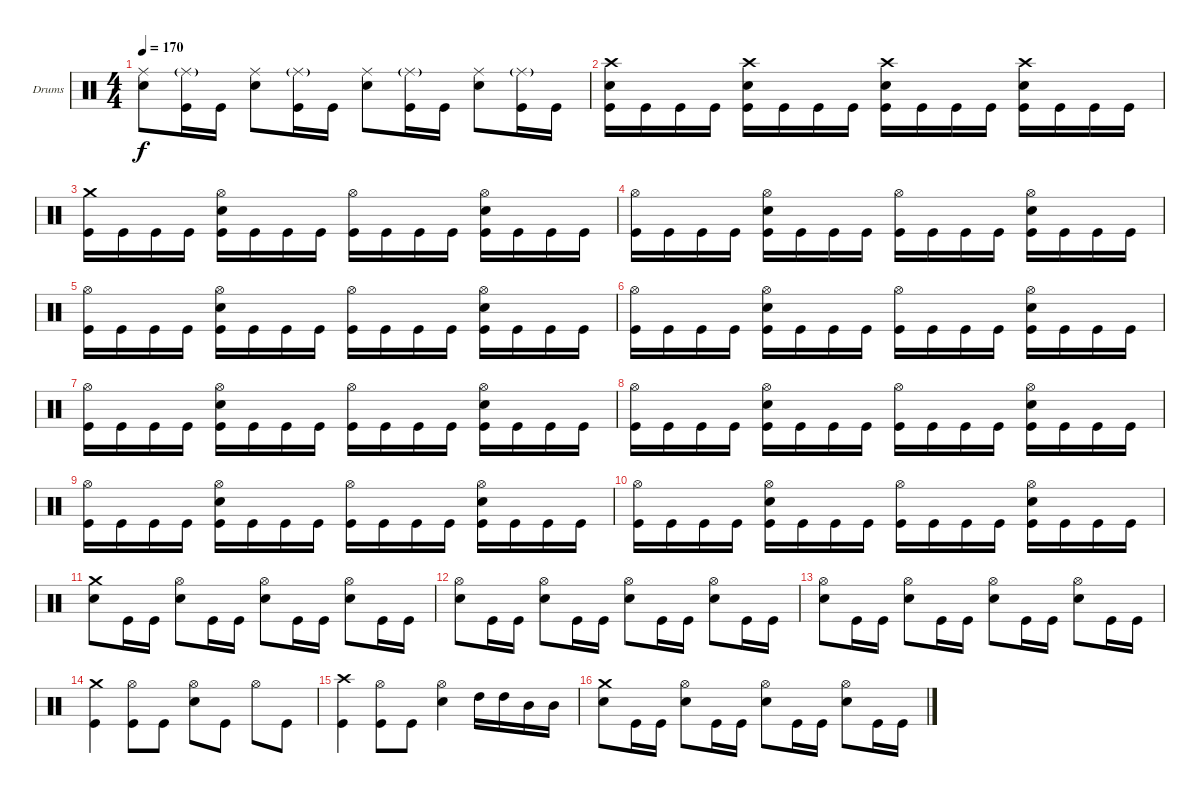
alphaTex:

\bracketExtendMode groupsimilarinstruments
\firstSystemTrackNameOrientation horizontal
\otherSystemsTrackNameOrientation horizontal
\track ("Дмитрий Кривенков" "Drums") {instrument percussion}
\staff {score}
\articulation defaults
\ts (4 4)
\tempo 170
\clef neutral
\ks c
("Ride (middle)" "Snare (hit) 2").8{dy f} ("Ride (middle)"{g} "Kick (hit)").16 "Kick (hit)".16 ("Ride (middle)" "Snare (hit) 2").8 ("Ride (middle)"{g} "Kick (hit)").16 "Kick (hit)".16 ("Ride (middle)" "Snare (hit) 2").8 ("Ride (middle)"{g} "Kick (hit)").16 "Kick (hit)".16 ("Ride (middle)" "Snare (hit) 2").8 ("Ride (middle)"{g} "Kick (hit)").16 "Kick (hit)".16 |
("Crash high (hit)" "Snare (hit) 2" "Kick (hit)").16 "Kick (hit)".16 "Kick (hit)".16 "Kick (hit)".16 ("Crash high (hit)" "Snare (hit) 2" "Kick (hit)").16 "Kick (hit)".16 "Kick (hit)".16 "Kick (hit)".16 ("Crash high (hit)" "Snare (hit) 2" "Kick (hit)").16 "Kick (hit)".16 "Kick (hit)".16 "Kick (hit)".16 ("Crash high (hit)" "Snare (hit) 2" "Kick (hit)").16 "Kick (hit)".16 "Kick (hit)".16 "Kick (hit)".16 |
("Crash medium (hit)" "Kick (hit)").16 "Kick (hit)".16 "Kick (hit)".16 "Kick (hit)".16 ("Hi-Hat (open)" "Snare (hit) 2" "Kick (hit)").16 "Kick (hit)".16 "Kick (hit)".16 "Kick (hit)".16 ("Hi-Hat (open)" "Kick (hit)").16 "Kick (hit)".16 "Kick (hit)".16 "Kick (hit)".16 ("Hi-Hat (open)" "Snare (hit) 2" "Kick (hit)").16 "Kick (hit)".16 "Kick (hit)".16 "Kick (hit)".16 |
("Hi-Hat (open)" "Kick (hit)").16 "Kick (hit)".16 "Kick (hit)".16 "Kick (hit)".16 ("Hi-Hat (open)" "Snare (hit) 2" "Kick (hit)").16 "Kick (hit)".16 "Kick (hit)".16 "Kick (hit)".16 ("Hi-Hat (open)" "Kick (hit)").16 "Kick (hit)".16 "Kick (hit)".16 "Kick (hit)".16 ("Hi-Hat (open)" "Snare (hit) 2" "Kick (hit)").16 "Kick (hit)".16 "Kick (hit)".16 "Kick (hit)".16 |
("Hi-Hat (open)" "Kick (hit)").16 "Kick (hit)".16 "Kick (hit)".16 "Kick (hit)".16 ("Hi-Hat (open)" "Snare (hit) 2" "Kick (hit)").16 "Kick (hit)".16 "Kick (hit)".16 "Kick (hit)".16 ("Hi-Hat (open)" "Kick (hit)").16 "Kick (hit)".16 "Kick (hit)".16 "Kick (hit)".16 ("Hi-Hat (open)" "Snare (hit) 2" "Kick (hit)").16 "Kick (hit)".16 "Kick (hit)".16 "Kick (hit)".16 |
("Hi-Hat (open)" "Kick (hit)").16 "Kick (hit)".16 "Kick (hit)".16 "Kick (hit)".16 ("Hi-Hat (open)" "Snare (hit) 2" "Kick (hit)").16 "Kick (hit)".16 "Kick (hit)".16 "Kick (hit)".16 ("Hi-Hat (open)" "Kick (hit)").16 "Kick (hit)".16 "Kick (hit)".16 "Kick (hit)".16 ("Hi-Hat (open)" "Snare (hit) 2" "Kick (hit)").16 "Kick (hit)".16 "Kick (hit)".16 "Kick (hit)".16 |
("Hi-Hat (open)" "Kick (hit)").16 "Kick (hit)".16 "Kick (hit)".16 "Kick (hit)".16 ("Hi-Hat (open)" "Snare (hit) 2" "Kick (hit)").16 "Kick (hit)".16 "Kick (hit)".16 "Kick (hit)".16 ("Hi-Hat (open)" "Kick (hit)").16 "Kick (hit)".16 "Kick (hit)".16 "Kick (hit)".16 ("Hi-Hat (open)" "Snare (hit) 2" "Kick (hit)").16 "Kick (hit)".16 "Kick (hit)".16 "Kick (hit)".16 |
("Hi-Hat (open)" "Kick (hit)").16 "Kick (hit)".16 "Kick (hit)".16 "Kick (hit)".16 ("Hi-Hat (open)" "Snare (hit) 2" "Kick (hit)").16 "Kick (hit)".16 "Kick (hit)".16 "Kick (hit)".16 ("Hi-Hat (open)" "Kick (hit)").16 "Kick (hit)".16 "Kick (hit)".16 "Kick (hit)".16 ("Hi-Hat (open)" "Snare (hit) 2" "Kick (hit)").16 "Kick (hit)".16 "Kick (hit)".16 "Kick (hit)".16 |
("Hi-Hat (open)" "Kick (hit)").16 "Kick (hit)".16 "Kick (hit)".16 "Kick (hit)".16 ("Hi-Hat (open)" "Snare (hit) 2" "Kick (hit)").16 "Kick (hit)".16 "Kick (hit)".16 "Kick (hit)".16 ("Hi-Hat (open)" "Kick (hit)").16 "Kick (hit)".16 "Kick (hit)".16 "Kick (hit)".16 ("Hi-Hat (open)" "Snare (hit) 2" "Kick (hit)").16 "Kick (hit)".16 "Kick (hit)".16 "Kick (hit)".16 |
("Hi-Hat (open)" "Kick (hit)").16 "Kick (hit)".16 "Kick (hit)".16 "Kick (hit)".16 ("Hi-Hat (open)" "Snare (hit) 2" "Kick (hit)").16 "Kick (hit)".16 "Kick (hit)".16 "Kick (hit)".16 ("Hi-Hat (open)" "Kick (hit)").16 "Kick (hit)".16 "Kick (hit)".16 "Kick (hit)".16 ("Hi-Hat (open)" "Snare (hit) 2" "Kick (hit)").16 "Kick (hit)".16 "Kick (hit)".16 "Kick (hit)".16 |
("Crash medium (hit)" "Snare (hit) 2").8 "Kick (hit)".16 "Kick (hit)".16 ("Hi-Hat (open)" "Snare (hit) 2").8 "Kick (hit)".16 "Kick (hit)".16 ("Hi-Hat (open)" "Snare (hit) 2").8 "Kick (hit)".16 "Kick (hit)".16 ("Hi-Hat (open)" "Snare (hit) 2").8 "Kick (hit)".16 "Kick (hit)".16 |
("Hi-Hat (open)" "Snare (hit) 2").8 "Kick (hit)".16 "Kick (hit)".16 ("Hi-Hat (open)" "Snare (hit) 2").8 "Kick (hit)".16 "Kick (hit)".16 ("Hi-Hat (open)" "Snare (hit) 2").8 "Kick (hit)".16 "Kick (hit)".16 ("Hi-Hat (open)" "Snare (hit) 2").8 "Kick (hit)".16 "Kick (hit)".16 |
("Hi-Hat (open)" "Snare (hit) 2").8 "Kick (hit)".16 "Kick (hit)".16 ("Hi-Hat (open)" "Snare (hit) 2").8 "Kick (hit)".16 "Kick (hit)".16 ("Hi-Hat (open)" "Snare (hit) 2").8 "Kick (hit)".16 "Kick (hit)".16 ("Hi-Hat (open)" "Snare (hit) 2").8 "Kick (hit)".16 "Kick (hit)".16 |
("Crash medium (hit)" "Kick (hit)").4 ("Hi-Hat (open)" "Kick (hit)").8 "Kick (hit)".8 ("Hi-Hat (open)" "Snare (hit) 2").8 "Kick (hit)".8 "Hi-Hat (open)".8 "Kick (hit)".8 |
("Crash high (hit)" "Kick (hit)").4 ("Hi-Hat (open)" "Kick (hit)").8 "Kick (hit)".8 ("Hi-Hat (open)" "Snare (hit) 2").4 "High Tom (hit)".16 "High Tom (hit)".16 "Mid Tom (hit)".16 "Mid Tom (hit)".16 |
("Crash medium (hit)" "Snare (hit) 2").8 "Kick (hit)".16 "Kick (hit)".16 ("Hi-Hat (open)" "Snare (hit) 2").8 "Kick (hit)".16 "Kick (hit)".16 ("Hi-Hat (open)" "Snare (hit) 2").8 "Kick (hit)".16 "Kick (hit)".16 ("Hi-Hat (open)" "Snare (hit) 2").8 "Kick (hit)".16 "Kick (hit)".16
